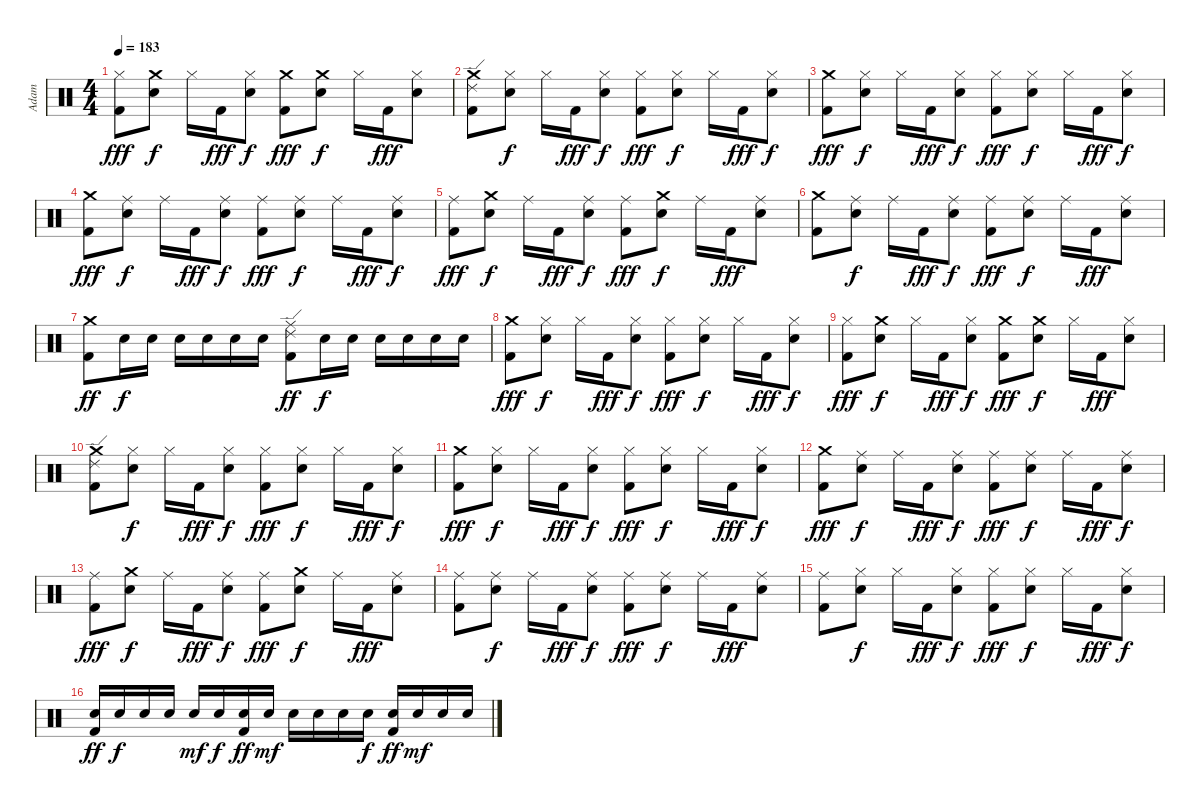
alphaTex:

\track ("Adam" "Adam") {instrument percussion}
\staff {score}
\articulation defaults
\ts (4 4)
\tempo 183
\clef neutral
\ks c
("Hi-Hat (closed)" "Kick (hit) 2").8{dy fff} ("Crash medium (hit)" "Electric Snare (hit)").8{dy f} "Hi-Hat (closed)".16 "Kick (hit) 2".16{dy fff} ("Hi-Hat (closed)" "Electric Snare (hit)").8{dy f} ("Crash medium (hit)" "Kick (hit) 2").8{dy fff} ("Crash medium (hit)" "Electric Snare (hit)").8{dy f} "Hi-Hat (closed)".16 "Kick (hit) 2".16{dy fff} ("Hi-Hat (closed)" "Electric Snare (hit)").8 |
("Ride (edge) 2" "Crash medium (hit)" "Kick (hit) 2").8 ("Hi-Hat (closed)" "Electric Snare (hit)").8{dy f} "Hi-Hat (closed)".16 "Kick (hit) 2".16{dy fff} ("Hi-Hat (closed)" "Electric Snare (hit)").8{dy f} ("Hi-Hat (closed)" "Kick (hit) 2").8{dy fff} ("Hi-Hat (closed)" "Electric Snare (hit)").8{dy f} "Hi-Hat (closed)".16 "Kick (hit) 2".16{dy fff} ("Hi-Hat (closed)" "Electric Snare (hit)").8{dy f} |
("Crash medium (hit)" "Kick (hit) 2").8{dy fff} ("Hi-Hat (closed)" "Electric Snare (hit)").8{dy f} "Hi-Hat (closed)".16 "Kick (hit) 2".16{dy fff} ("Hi-Hat (closed)" "Electric Snare (hit)").8{dy f} ("Hi-Hat (closed)" "Kick (hit) 2").8{dy fff} ("Hi-Hat (closed)" "Electric Snare (hit)").8{dy f} "Hi-Hat (closed)".16 "Kick (hit) 2".16{dy fff} ("Hi-Hat (closed)" "Electric Snare (hit)").8{dy f} |
("Crash medium (hit)" "Kick (hit) 2").8{dy fff} ("Ride (middle)" "Electric Snare (hit)").8{dy f} "Ride (middle)".16 "Kick (hit) 2".16{dy fff} ("Ride (middle)" "Electric Snare (hit)").8{dy f} ("Ride (middle)" "Kick (hit) 2").8{dy fff} ("Ride (middle)" "Electric Snare (hit)").8{dy f} "Ride (middle)".16 "Kick (hit) 2".16{dy fff} ("Ride (middle)" "Electric Snare (hit)").8{dy f} |
("Ride (middle)" "Kick (hit) 2").8{dy fff} ("Crash medium (hit)" "Electric Snare (hit)").8{dy f} "Ride (middle)".16 "Kick (hit) 2".16{dy fff} ("Ride (middle)" "Electric Snare (hit)").8{dy f} ("Ride (middle)" "Kick (hit) 2").8{dy fff} ("Crash medium (hit)" "Electric Snare (hit)").8{dy f} "Ride (middle)".16 "Kick (hit) 2".16{dy fff} ("Ride (middle)" "Electric Snare (hit)").8 |
("Crash medium (hit)" "Kick (hit) 2").8 ("Ride (middle)" "Electric Snare (hit)").8{dy f} "Ride (middle)".16 "Kick (hit) 2".16{dy fff} ("Ride (middle)" "Electric Snare (hit)").8{dy f} ("Ride (middle)" "Kick (hit) 2").8{dy fff} ("Ride (middle)" "Electric Snare (hit)").8{dy f} "Ride (middle)".16 "Kick (hit) 2".16{dy fff} ("Ride (middle)" "Electric Snare (hit)").8 |
("Crash medium (hit)" "Kick (hit) 2").8{dy ff} "Electric Snare (hit)".16{dy f} "Electric Snare (hit)".16 "Electric Snare (hit)".16 "Electric Snare (hit)".16 "Electric Snare (hit)".16 "Electric Snare (hit)".16 ("Ride (middle)" "Ride (edge) 2" "Kick (hit) 2").8{dy ff} "Electric Snare (hit)".16{dy f} "Electric Snare (hit)".16 "Electric Snare (hit)".16 "Electric Snare (hit)".16 "Electric Snare (hit)".16 "Electric Snare (hit)".16 |
("Crash medium (hit)" "Kick (hit) 2").8{dy fff} ("Hi-Hat (closed)" "Electric Snare (hit)").8{dy f} "Hi-Hat (closed)".16 "Kick (hit) 2".16{dy fff} ("Hi-Hat (closed)" "Electric Snare (hit)").8{dy f} ("Hi-Hat (closed)" "Kick (hit) 2").8{dy fff} ("Hi-Hat (closed)" "Electric Snare (hit)").8{dy f} "Hi-Hat (closed)".16 "Kick (hit) 2".16{dy fff} ("Hi-Hat (closed)" "Electric Snare (hit)").8{dy f} |
("Hi-Hat (closed)" "Kick (hit) 2").8{dy fff} ("Crash medium (hit)" "Electric Snare (hit)").8{dy f} "Hi-Hat (closed)".16 "Kick (hit) 2".16{dy fff} ("Hi-Hat (closed)" "Electric Snare (hit)").8{dy f} ("Crash medium (hit)" "Kick (hit) 2").8{dy fff} ("Crash medium (hit)" "Electric Snare (hit)").8{dy f} "Hi-Hat (closed)".16 "Kick (hit) 2".16{dy fff} ("Hi-Hat (closed)" "Electric Snare (hit)").8 |
("Ride (edge) 2" "Crash medium (hit)" "Kick (hit) 2").8 ("Hi-Hat (closed)" "Electric Snare (hit)").8{dy f} "Hi-Hat (closed)".16 "Kick (hit) 2".16{dy fff} ("Hi-Hat (closed)" "Electric Snare (hit)").8{dy f} ("Hi-Hat (closed)" "Kick (hit) 2").8{dy fff} ("Hi-Hat (closed)" "Electric Snare (hit)").8{dy f} "Hi-Hat (closed)".16 "Kick (hit) 2".16{dy fff} ("Hi-Hat (closed)" "Electric Snare (hit)").8{dy f} |
("Crash medium (hit)" "Kick (hit) 2").8{dy fff} ("Hi-Hat (closed)" "Electric Snare (hit)").8{dy f} "Hi-Hat (closed)".16 "Kick (hit) 2".16{dy fff} ("Hi-Hat (closed)" "Electric Snare (hit)").8{dy f} ("Hi-Hat (closed)" "Kick (hit) 2").8{dy fff} ("Hi-Hat (closed)" "Electric Snare (hit)").8{dy f} "Hi-Hat (closed)".16 "Kick (hit) 2".16{dy fff} ("Hi-Hat (closed)" "Electric Snare (hit)").8{dy f} |
("Crash medium (hit)" "Kick (hit) 2").8{dy fff} ("Ride (middle)" "Electric Snare (hit)").8{dy f} "Ride (middle)".16 "Kick (hit) 2".16{dy fff} ("Ride (middle)" "Electric Snare (hit)").8{dy f} ("Ride (middle)" "Kick (hit) 2").8{dy fff} ("Ride (middle)" "Electric Snare (hit)").8{dy f} "Ride (middle)".16 "Kick (hit) 2".16{dy fff} ("Ride (middle)" "Electric Snare (hit)").8{dy f} |
("Ride (middle)" "Kick (hit) 2").8{dy fff} ("Crash medium (hit)" "Electric Snare (hit)").8{dy f} "Ride (middle)".16 "Kick (hit) 2".16{dy fff} ("Ride (middle)" "Electric Snare (hit)").8{dy f} ("Ride (middle)" "Kick (hit) 2").8{dy fff} ("Crash medium (hit)" "Electric Snare (hit)").8{dy f} "Ride (middle)".16 "Kick (hit) 2".16{dy fff} ("Ride (middle)" "Electric Snare (hit)").8 |
("Ride (middle)" "Kick (hit) 2").8 ("Ride (middle)" "Electric Snare (hit)").8{dy f} "Ride (middle)".16 "Kick (hit) 2".16{dy fff} ("Ride (middle)" "Electric Snare (hit)").8{dy f} ("Ride (middle)" "Kick (hit) 2").8{dy fff} ("Ride (middle)" "Electric Snare (hit)").8{dy f} "Ride (middle)".16 "Kick (hit) 2".16{dy fff} ("Ride (middle)" "Electric Snare (hit)").8 |
("Ride (middle)" "Kick (hit) 2").8 ("Hi-Hat (closed)" "Electric Snare (hit)").8{dy f} "Hi-Hat (closed)".16 "Kick (hit) 2".16{dy fff} ("Hi-Hat (closed)" "Electric Snare (hit)").8{dy f} ("Hi-Hat (closed)" "Kick (hit) 2").8{dy fff} ("Hi-Hat (closed)" "Electric Snare (hit)").8{dy f} "Hi-Hat (closed)".16 "Kick (hit) 2".16{dy fff} ("Hi-Hat (closed)" "Electric Snare (hit)").8{dy f} |
("Electric Snare (hit)" "Kick (hit) 2").16{dy ff} "Electric Snare (hit)".16{dy f} "Electric Snare (hit)".16 "Electric Snare (hit)".16 "Electric Snare (hit)".16{dy mf} "Electric Snare (hit)".16{dy f} ("Electric Snare (hit)" "Kick (hit) 2").16{dy ff} "Electric Snare (hit)".16{dy mf} "Electric Snare (hit)".16 "Electric Snare (hit)".16 "Electric Snare (hit)".16 "Electric Snare (hit)".16{dy f} ("Electric Snare (hit)" "Kick (hit) 2").16{dy ff} "Electric Snare (hit)".16{dy mf} "Electric Snare (hit)".16 "Electric Snare (hit)".16
